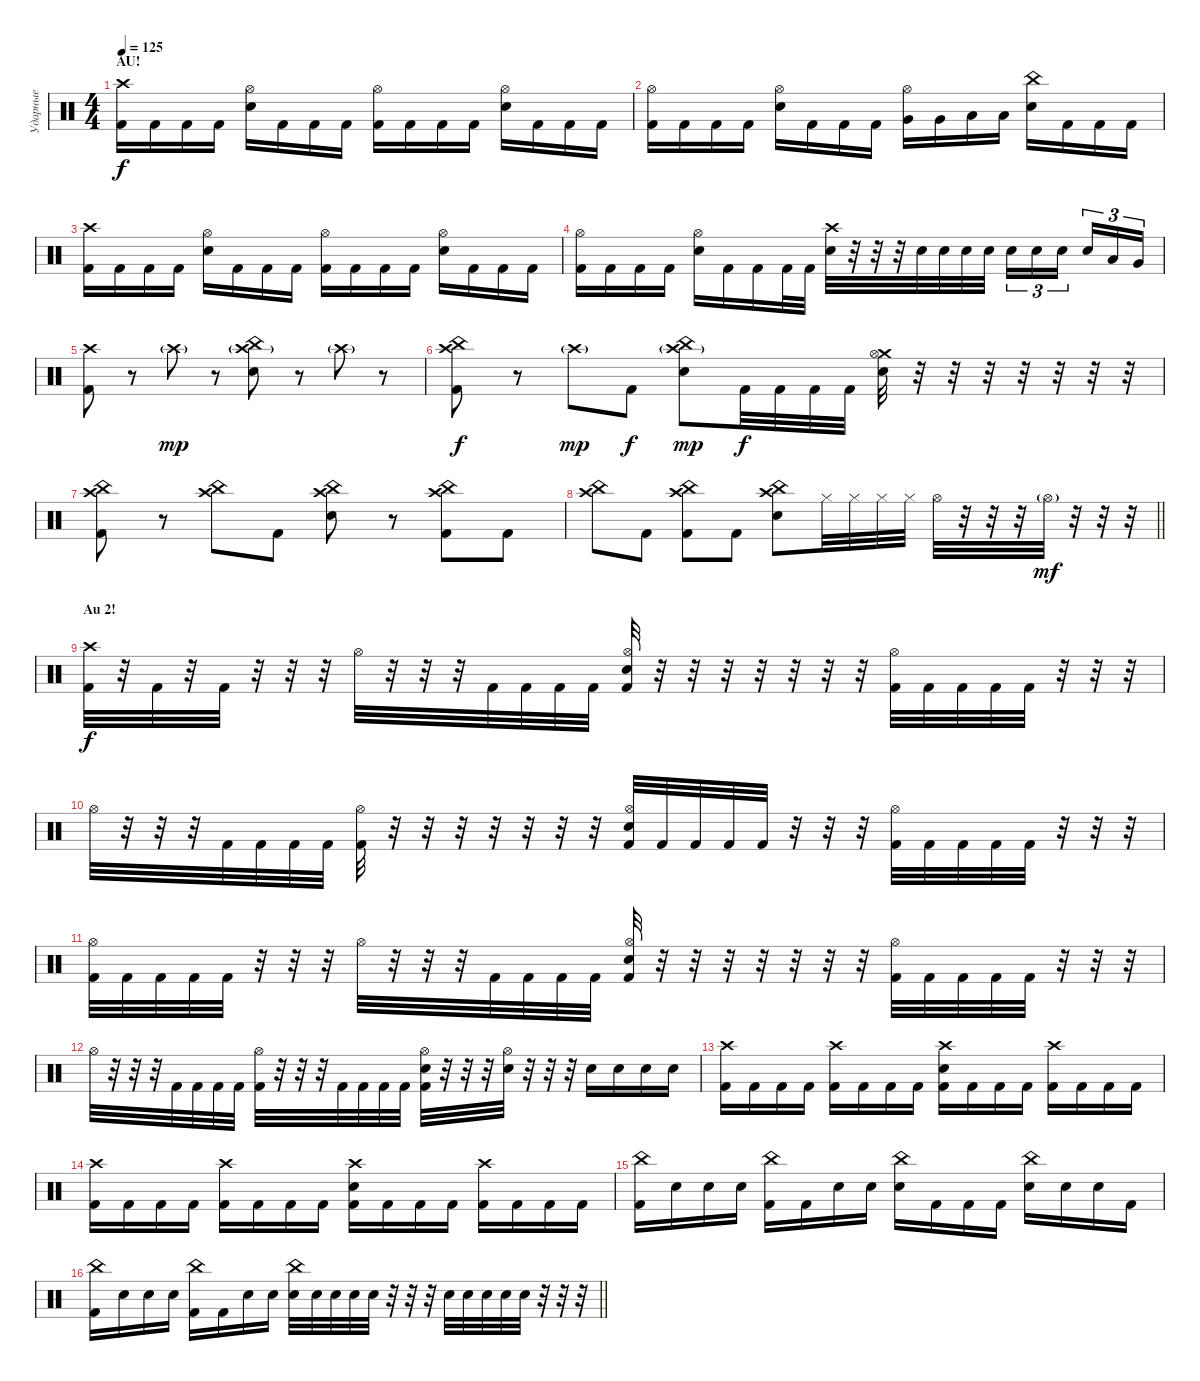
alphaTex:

\track ("Ударные" "Ударные") {instrument percussion}
\staff {score}
\articulation defaults
\ts (4 4)
\section ("" "AU!")
\tempo 125
\clef neutral
\ks c
("Crash high (hit)" "Kick (hit) 2").16{dy f} "Kick (hit) 2".16 "Kick (hit) 2".16 "Kick (hit) 2".16 ("Hi-Hat (open)" "Electric Snare (hit)").16 "Kick (hit) 2".16 "Kick (hit) 2".16 "Kick (hit) 2".16 ("Hi-Hat (open)" "Kick (hit) 2").16 "Kick (hit) 2".16 "Kick (hit) 2".16 "Kick (hit) 2".16 ("Hi-Hat (open)" "Electric Snare (hit)").16 "Kick (hit) 2".16 "Kick (hit) 2".16 "Kick (hit) 2".16 |
("Hi-Hat (open)" "Kick (hit) 2").16 "Kick (hit) 2".16 "Kick (hit) 2".16 "Kick (hit) 2".16 ("Hi-Hat (open)" "Electric Snare (hit)").16 "Kick (hit) 2".16 "Kick (hit) 2".16 "Kick (hit) 2".16 ("Hi-Hat (open)" "Very Low Tom (hit)").16 "Very Low Tom (hit)".16 "Low Floor Tom (hit)".16 "Low Floor Tom (hit)".16 ("China (hit)" "Electric Snare (hit)").16 "Kick (hit) 2".16 "Kick (hit) 2".16 "Kick (hit) 2".16 |
("Crash high (hit)" "Kick (hit) 2").16 "Kick (hit) 2".16 "Kick (hit) 2".16 "Kick (hit) 2".16 ("Hi-Hat (open)" "Electric Snare (hit)").16 "Kick (hit) 2".16 "Kick (hit) 2".16 "Kick (hit) 2".16 ("Hi-Hat (open)" "Kick (hit) 2").16 "Kick (hit) 2".16 "Kick (hit) 2".16 "Kick (hit) 2".16 ("Hi-Hat (open)" "Electric Snare (hit)").16 "Kick (hit) 2".16 "Kick (hit) 2".16 "Kick (hit) 2".16 |
("Hi-Hat (open)" "Kick (hit) 2").16 "Kick (hit) 2".16 "Kick (hit) 2".16 "Kick (hit) 2".16 ("Hi-Hat (open)" "Electric Snare (hit)").16 "Kick (hit) 2".16 "Kick (hit) 2".16 "Kick (hit) 2".32 "Kick (hit) 2".32 ("Crash high (hit)" "Electric Snare (hit)").32 r.32 r.32 r.32 "Electric Snare (hit)".32 "Electric Snare (hit)".32 "Electric Snare (hit)".32 "Electric Snare (hit)".32 "Electric Snare (hit)".16{tu (3 2)} "Electric Snare (hit)".16{tu (3 2)} "Electric Snare (hit)".16{tu (3 2) beam splitsecondary} "Electric Snare (hit)".16{tu (3 2)} "Low Tom (hit)".16{tu (3 2)} "Very Low Tom (hit)".16{tu (3 2)} |
("Crash high (hit)" "Kick (hit) 2").8 r.8 "Crash high (hit)"{g}.8{dy mp} r.8 ("Crash high (hit)"{g} "China (hit)" "Electric Snare (hit)").8 r.8 "Crash high (hit)"{g}.8 r.8 |
("China (hit)" "Crash high (hit)" "Kick (hit) 2").8{dy f} r.8 "Crash high (hit)"{g}.8{dy mp} "Kick (hit) 2".8{dy f} ("Crash high (hit)"{g} "China (hit)" "Electric Snare (hit)").8{dy mp} "Kick (hit) 2".32{dy f} "Kick (hit) 2".32 "Kick (hit) 2".32 "Kick (hit) 2".32 ("Crash medium (hit)" "Hi-Hat (open)" "Electric Snare (hit)").32 r.32 r.32 r.32 r.32 r.32 r.32 r.32 |
("Crash high (hit)" "China (hit)" "Kick (hit) 2").8 r.8 ("Crash high (hit)" "China (hit)").8 "Kick (hit) 2".8 ("Crash high (hit)" "China (hit)" "Electric Snare (hit)").8 r.8 ("Crash high (hit)" "China (hit)" "Kick (hit) 2").8 "Kick (hit) 2".8 |
\barLineRight lightlight
("Crash high (hit)" "China (hit)").8 "Kick (hit) 2".8 ("Crash high (hit)" "China (hit)" "Kick (hit) 2").8 "Kick (hit) 2".8 ("Crash high (hit)" "China (hit)" "Electric Snare (hit)").8 "Hi-Hat (closed)".32 "Hi-Hat (closed)".32 "Hi-Hat (closed)".32 "Hi-Hat (closed)".32 "Hi-Hat (open)".32 r.32 r.32 r.32 "Hi-Hat (open)"{g}.32{dy mf} r.32 r.32 r.32 |
\section ("" "Au 2!")
("Crash high (hit)" "Kick (hit) 2").32{dy f} r.32 "Kick (hit) 2".32 r.32 "Kick (hit) 2".32 r.32 r.32 r.32 "Hi-Hat (open)".32 r.32 r.32 r.32 "Kick (hit) 2".32 "Kick (hit) 2".32 "Kick (hit) 2".32 "Kick (hit) 2".32 ("Hi-Hat (open)" "Electric Snare (hit)" "Kick (hit) 2").32 r.32 r.32 r.32 r.32 r.32 r.32 r.32 ("Hi-Hat (open)" "Kick (hit) 2").32 "Kick (hit) 2".32 "Kick (hit) 2".32 "Kick (hit) 2".32 "Kick (hit) 2".32 r.32 r.32 r.32 |
"Hi-Hat (open)".32 r.32 r.32 r.32 "Kick (hit) 2".32 "Kick (hit) 2".32 "Kick (hit) 2".32 "Kick (hit) 2".32 ("Hi-Hat (open)" "Kick (hit) 2").32 r.32 r.32 r.32 r.32 r.32 r.32 r.32 ("Hi-Hat (open)" "Electric Snare (hit)" "Kick (hit) 2").32 "Kick (hit) 2".32 "Kick (hit) 2".32 "Kick (hit) 2".32 "Kick (hit) 2".32 r.32 r.32 r.32 ("Hi-Hat (open)" "Kick (hit) 2").32 "Kick (hit) 2".32 "Kick (hit) 2".32 "Kick (hit) 2".32 "Kick (hit) 2".32 r.32 r.32 r.32 |
("Hi-Hat (open)" "Kick (hit) 2").32 "Kick (hit) 2".32 "Kick (hit) 2".32 "Kick (hit) 2".32 "Kick (hit) 2".32 r.32 r.32 r.32 "Hi-Hat (open)".32 r.32 r.32 r.32 "Kick (hit) 2".32 "Kick (hit) 2".32 "Kick (hit) 2".32 "Kick (hit) 2".32 ("Hi-Hat (open)" "Electric Snare (hit)" "Kick (hit) 2").32 r.32 r.32 r.32 r.32 r.32 r.32 r.32 ("Hi-Hat (open)" "Kick (hit) 2").32 "Kick (hit) 2".32 "Kick (hit) 2".32 "Kick (hit) 2".32 "Kick (hit) 2".32 r.32 r.32 r.32 |
"Hi-Hat (open)".32 r.32 r.32 r.32 "Kick (hit) 2".32 "Kick (hit) 2".32 "Kick (hit) 2".32 "Kick (hit) 2".32 ("Hi-Hat (open)" "Kick (hit) 2").32 r.32 r.32 r.32 "Kick (hit) 2".32 "Kick (hit) 2".32 "Kick (hit) 2".32 "Kick (hit) 2".32 ("Hi-Hat (open)" "Electric Snare (hit)" "Kick (hit) 2").32 r.32 r.32 r.32 ("Hi-Hat (open)" "Electric Snare (hit)").32 r.32 r.32 r.32 "Electric Snare (hit)".16 "Electric Snare (hit)".16 "Electric Snare (hit)".16 "Electric Snare (hit)".16 |
("Kick (hit) 2" "Crash high (hit)").16 "Kick (hit) 2".16 "Kick (hit) 2".16 "Kick (hit) 2".16 ("Kick (hit) 2" "Crash high (hit)").16 "Kick (hit) 2".16 "Kick (hit) 2".16 "Kick (hit) 2".16 ("Kick (hit) 2" "Electric Snare (hit)" "Crash high (hit)").16 "Kick (hit) 2".16 "Kick (hit) 2".16 "Kick (hit) 2".16 ("Kick (hit) 2" "Crash high (hit)").16 "Kick (hit) 2".16 "Kick (hit) 2".16 "Kick (hit) 2".16 |
("Kick (hit) 2" "Crash high (hit)").16 "Kick (hit) 2".16 "Kick (hit) 2".16 "Kick (hit) 2".16 ("Kick (hit) 2" "Crash high (hit)").16 "Kick (hit) 2".16 "Kick (hit) 2".16 "Kick (hit) 2".16 ("Kick (hit) 2" "Electric Snare (hit)" "Crash high (hit)").16 "Kick (hit) 2".16 "Kick (hit) 2".16 "Kick (hit) 2".16 ("Kick (hit) 2" "Crash high (hit)").16 "Kick (hit) 2".16 "Kick (hit) 2".16 "Kick (hit) 2".16 |
("Kick (hit) 2" "China (hit)").16 "Electric Snare (hit)".16 "Electric Snare (hit)".16 "Electric Snare (hit)".16 ("Kick (hit) 2" "China (hit)").16 "Kick (hit) 2".16 "Electric Snare (hit)".16 "Electric Snare (hit)".16 ("Electric Snare (hit)" "China (hit)").16 "Kick (hit) 2".16 "Kick (hit) 2".16 "Kick (hit) 2".16 ("Electric Snare (hit)" "China (hit)").16 "Electric Snare (hit)".16 "Electric Snare (hit)".16 "Kick (hit) 2".16 |
\barLineRight lightlight
("Kick (hit) 2" "China (hit)").16 "Electric Snare (hit)".16 "Electric Snare (hit)".16 "Electric Snare (hit)".16 ("Kick (hit) 2" "China (hit)").16 "Kick (hit) 2".16 "Electric Snare (hit)".16 "Electric Snare (hit)".16 ("Electric Snare (hit)" "China (hit)").32 "Electric Snare (hit)".32 "Electric Snare (hit)".32 "Electric Snare (hit)".32 "Electric Snare (hit)".32 r.32 r.32 r.32 "Electric Snare (hit)".32 "Electric Snare (hit)".32 "Electric Snare (hit)".32 "Electric Snare (hit)".32 "Electric Snare (hit)".32 r.32 r.32 r.32
